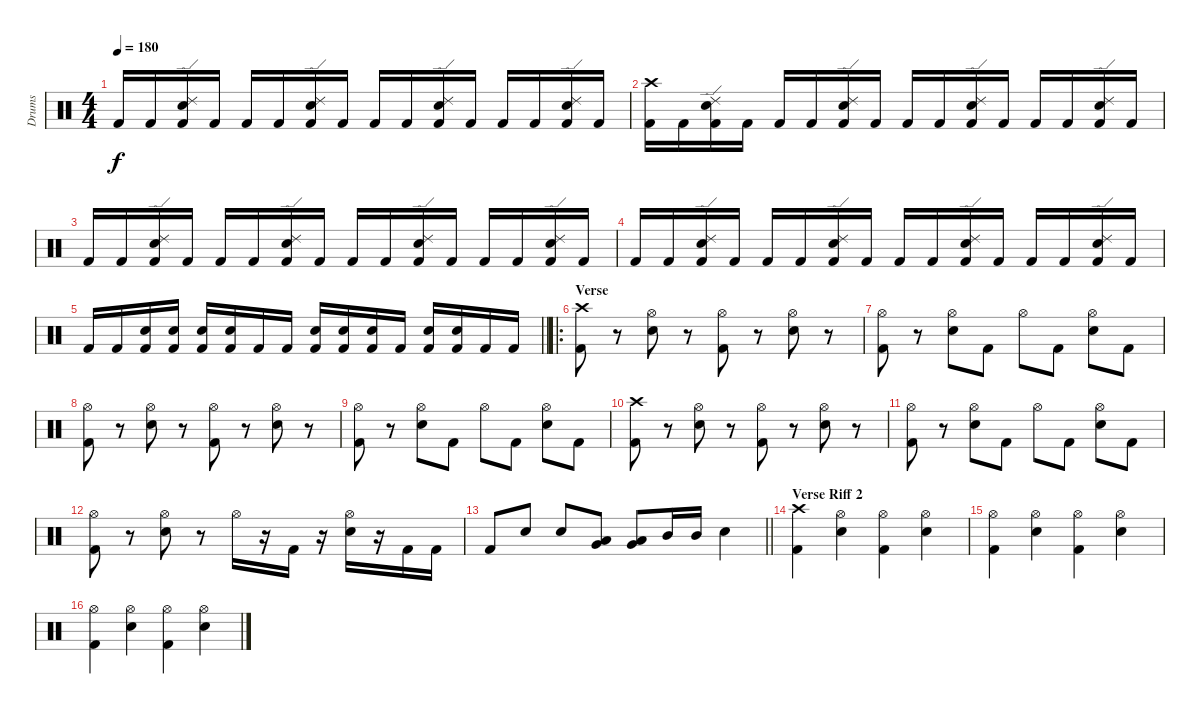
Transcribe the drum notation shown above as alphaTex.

\track ("Drums" "Drums") {instrument percussion}
\staff {score}
\articulation defaults
\ts (4 4)
\tempo 180
\clef neutral
\ks c "Kick (hit) 2".16{dy f} "Kick (hit) 2".16
("Ride (edge) 2" "Electric Snare (hit)" "Kick (hit) 2").16 "Kick (hit) 2".16 "Kick (hit) 2".16 "Kick (hit) 2".16 ("Ride (edge) 2" "Electric Snare (hit)" "Kick (hit) 2").16 "Kick (hit) 2".16 "Kick (hit) 2".16 "Kick (hit) 2".16 ("Ride (edge) 2" "Electric Snare (hit)" "Kick (hit) 2").16 "Kick (hit) 2".16 "Kick (hit) 2".16 "Kick (hit) 2".16 ("Ride (edge) 2" "Electric Snare (hit)" "Kick (hit) 2").16 "Kick (hit) 2".16 |
("Crash high (hit)" "Kick (hit) 2").16 "Kick (hit) 2".16 ("Ride (edge) 2" "Electric Snare (hit)" "Kick (hit) 2").16 "Kick (hit) 2".16 "Kick (hit) 2".16 "Kick (hit) 2".16 ("Ride (edge) 2" "Electric Snare (hit)" "Kick (hit) 2").16 "Kick (hit) 2".16 "Kick (hit) 2".16 "Kick (hit) 2".16 ("Ride (edge) 2" "Electric Snare (hit)" "Kick (hit) 2").16 "Kick (hit) 2".16 "Kick (hit) 2".16 "Kick (hit) 2".16 ("Ride (edge) 2" "Electric Snare (hit)" "Kick (hit) 2").16 "Kick (hit) 2".16 |
"Kick (hit) 2".16 "Kick (hit) 2".16 ("Ride (edge) 2" "Electric Snare (hit)" "Kick (hit) 2").16 "Kick (hit) 2".16 "Kick (hit) 2".16 "Kick (hit) 2".16 ("Ride (edge) 2" "Electric Snare (hit)" "Kick (hit) 2").16 "Kick (hit) 2".16 "Kick (hit) 2".16 "Kick (hit) 2".16 ("Ride (edge) 2" "Electric Snare (hit)" "Kick (hit) 2").16 "Kick (hit) 2".16 "Kick (hit) 2".16 "Kick (hit) 2".16 ("Ride (edge) 2" "Electric Snare (hit)" "Kick (hit) 2").16 "Kick (hit) 2".16 |
"Kick (hit) 2".16 "Kick (hit) 2".16 ("Ride (edge) 2" "Electric Snare (hit)" "Kick (hit) 2").16 "Kick (hit) 2".16 "Kick (hit) 2".16 "Kick (hit) 2".16 ("Ride (edge) 2" "Electric Snare (hit)" "Kick (hit) 2").16 "Kick (hit) 2".16 "Kick (hit) 2".16 "Kick (hit) 2".16 ("Ride (edge) 2" "Electric Snare (hit)" "Kick (hit) 2").16 "Kick (hit) 2".16 "Kick (hit) 2".16 "Kick (hit) 2".16 ("Ride (edge) 2" "Electric Snare (hit)" "Kick (hit) 2").16 "Kick (hit) 2".16 |
\barLineRight lightlight "Kick (hit) 2".16 "Kick (hit) 2".16
("Electric Snare (hit)" "Kick (hit) 2").16 ("Electric Snare (hit)" "Kick (hit) 2").16 ("Electric Snare (hit)" "Kick (hit) 2").16 ("Electric Snare (hit)" "Kick (hit) 2").16 "Kick (hit) 2".16 "Kick (hit) 2".16 ("Electric Snare (hit)" "Kick (hit) 2").16 ("Electric Snare (hit)" "Kick (hit) 2").16 ("Electric Snare (hit)" "Kick (hit) 2").16 "Kick (hit) 2".16 ("Electric Snare (hit)" "Kick (hit) 2").16 ("Electric Snare (hit)" "Kick (hit) 2").16 "Kick (hit) 2".16 "Kick (hit) 2".16 |
\ro
\section ("" "Verse")
("Crash high (hit)" "Kick (hit) 2").8 r.8 ("Hi-Hat (open)" "Electric Snare (hit)").8 r.8 ("Hi-Hat (open)" "Kick (hit) 2").8 r.8 ("Hi-Hat (open)" "Electric Snare (hit)").8 r.8 |
("Hi-Hat (open)" "Kick (hit) 2").8 r.8 ("Hi-Hat (open)" "Electric Snare (hit)").8 "Kick (hit) 2".8 "Hi-Hat (open)".8 "Kick (hit) 2".8 ("Hi-Hat (open)" "Electric Snare (hit)").8 "Kick (hit) 2".8 |
("Hi-Hat (open)" "Kick (hit) 2").8 r.8 ("Hi-Hat (open)" "Electric Snare (hit)").8 r.8 ("Hi-Hat (open)" "Kick (hit) 2").8 r.8 ("Hi-Hat (open)" "Electric Snare (hit)").8 r.8 |
("Hi-Hat (open)" "Kick (hit) 2").8 r.8 ("Hi-Hat (open)" "Electric Snare (hit)").8 "Kick (hit) 2".8 "Hi-Hat (open)".8 "Kick (hit) 2".8 ("Hi-Hat (open)" "Electric Snare (hit)").8 "Kick (hit) 2".8 |
("Crash high (hit)" "Kick (hit) 2").8 r.8 ("Hi-Hat (open)" "Electric Snare (hit)").8 r.8 ("Hi-Hat (open)" "Kick (hit) 2").8 r.8 ("Hi-Hat (open)" "Electric Snare (hit)").8 r.8 |
("Hi-Hat (open)" "Kick (hit) 2").8 r.8 ("Hi-Hat (open)" "Electric Snare (hit)").8 "Kick (hit) 2".8 "Hi-Hat (open)".8 "Kick (hit) 2".8 ("Hi-Hat (open)" "Electric Snare (hit)").8 "Kick (hit) 2".8 |
("Hi-Hat (open)" "Kick (hit) 2").8 r.8 ("Hi-Hat (open)" "Electric Snare (hit)").8 r.8 "Hi-Hat (open)".16 r.16 "Kick (hit) 2".16 r.16 ("Hi-Hat (open)" "Electric Snare (hit)").16 r.16 "Kick (hit) 2".16 "Kick (hit) 2".16 |
\barLineRight lightlight "Kick (hit) 2".8 "Electric Snare (hit)".8 "Electric Snare (hit)".8
("Very Low Tom (hit)" "Low Floor Tom (hit)").8 ("Very Low Tom (hit)" "Low Floor Tom (hit)").8 "Mid Tom (hit)".16 "Mid Tom (hit)".16 "Electric Snare (hit)".4 |
\section ("" "Verse Riff 2")
("Crash high (hit)" "Kick (hit) 2").4 ("Hi-Hat (open)" "Electric Snare (hit)").4 ("Hi-Hat (open)" "Kick (hit) 2").4 ("Hi-Hat (open)" "Electric Snare (hit)").4 |
("Hi-Hat (open)" "Kick (hit) 2").4 ("Hi-Hat (open)" "Electric Snare (hit)").4 ("Hi-Hat (open)" "Kick (hit) 2").4 ("Hi-Hat (open)" "Electric Snare (hit)").4 |
("Hi-Hat (open)" "Kick (hit) 2").4 ("Hi-Hat (open)" "Electric Snare (hit)").4 ("Hi-Hat (open)" "Kick (hit) 2").4 ("Hi-Hat (open)" "Electric Snare (hit)").4
